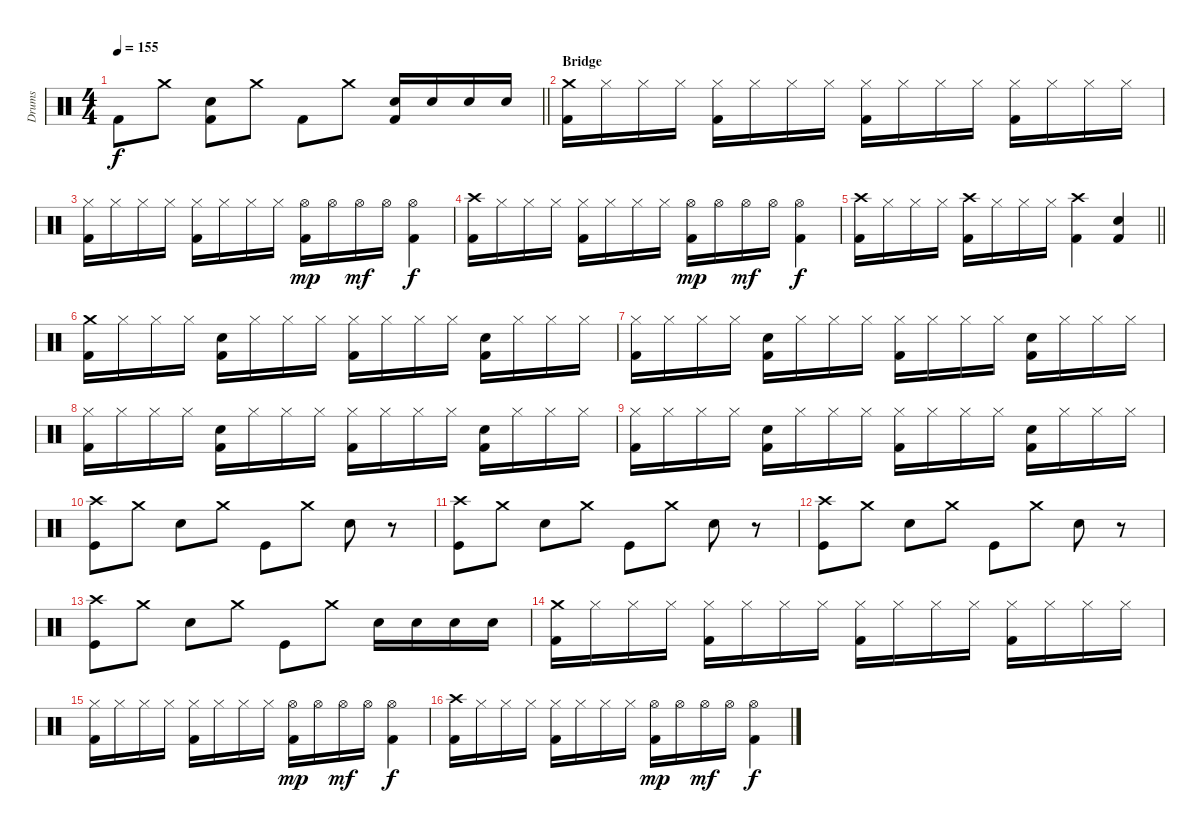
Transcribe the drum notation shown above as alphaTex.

\track ("Drums" "Drums") {instrument percussion}
\staff {score}
\articulation defaults
\ts (4 4)
\tempo 155
\clef neutral
\barLineRight lightlight
\ks c "Kick (hit) 2".8{dy f} "Crash medium (hit)".8
("Electric Snare (hit)" "Kick (hit) 2").8 "Crash medium (hit)".8 "Kick (hit) 2".8 "Crash medium (hit)".8 ("Electric Snare (hit)" "Kick (hit) 2").16 "Electric Snare (hit)".16 "Electric Snare (hit)".16 "Electric Snare (hit)".16 |
\section ("" "Bridge")
("Crash medium (hit)" "Kick (hit) 2").16 "Hi-Hat (closed)".16 "Hi-Hat (closed)".16 "Hi-Hat (closed)".16 ("Hi-Hat (closed)" "Kick (hit) 2").16 "Hi-Hat (closed)".16 "Hi-Hat (closed)".16 "Hi-Hat (closed)".16 ("Hi-Hat (closed)" "Kick (hit) 2").16 "Hi-Hat (closed)".16 "Hi-Hat (closed)".16 "Hi-Hat (closed)".16 ("Hi-Hat (closed)" "Kick (hit) 2").16 "Hi-Hat (closed)".16 "Hi-Hat (closed)".16 "Hi-Hat (closed)".16 |
("Hi-Hat (closed)" "Kick (hit) 2").16 "Hi-Hat (closed)".16 "Hi-Hat (closed)".16 "Hi-Hat (closed)".16 ("Hi-Hat (closed)" "Kick (hit) 2").16 "Hi-Hat (closed)".16 "Hi-Hat (closed)".16 "Hi-Hat (closed)".16 ("Hi-Hat (open)" "Kick (hit) 2").16{dy mp} "Hi-Hat (open)".16 "Hi-Hat (open)".16{dy mf} "Hi-Hat (open)".16 ("Hi-Hat (open)" "Kick (hit) 2").4{dy f} |
("Crash high (hit)" "Kick (hit) 2").16 "Hi-Hat (closed)".16 "Hi-Hat (closed)".16 "Hi-Hat (closed)".16 ("Hi-Hat (closed)" "Kick (hit) 2").16 "Hi-Hat (closed)".16 "Hi-Hat (closed)".16 "Hi-Hat (closed)".16 ("Hi-Hat (open)" "Kick (hit) 2").16{dy mp} "Hi-Hat (open)".16 "Hi-Hat (open)".16{dy mf} "Hi-Hat (open)".16 ("Hi-Hat (open)" "Kick (hit) 2").4{dy f} |
\barLineRight lightlight
("Crash high (hit)" "Kick (hit) 2").16 "Hi-Hat (closed)".16 "Hi-Hat (closed)".16 "Hi-Hat (closed)".16 ("Crash high (hit)" "Kick (hit) 2").16 "Hi-Hat (closed)".16 "Hi-Hat (closed)".16 "Hi-Hat (closed)".16 ("Crash high (hit)" "Kick (hit) 2").4 ("Electric Snare (hit)" "Kick (hit) 2").4 |
("Crash medium (hit)" "Kick (hit) 2").16 "Hi-Hat (closed)".16 "Hi-Hat (closed)".16 "Hi-Hat (closed)".16 ("Electric Snare (hit)" "Kick (hit) 2").16 "Hi-Hat (closed)".16 "Hi-Hat (closed)".16 "Hi-Hat (closed)".16 ("Hi-Hat (closed)" "Kick (hit) 2").16 "Hi-Hat (closed)".16 "Hi-Hat (closed)".16 "Hi-Hat (closed)".16 ("Electric Snare (hit)" "Kick (hit) 2").16 "Hi-Hat (closed)".16 "Hi-Hat (closed)".16 "Hi-Hat (closed)".16 |
("Hi-Hat (closed)" "Kick (hit) 2").16 "Hi-Hat (closed)".16 "Hi-Hat (closed)".16 "Hi-Hat (closed)".16 ("Electric Snare (hit)" "Kick (hit) 2").16 "Hi-Hat (closed)".16 "Hi-Hat (closed)".16 "Hi-Hat (closed)".16 ("Hi-Hat (closed)" "Kick (hit) 2").16 "Hi-Hat (closed)".16 "Hi-Hat (closed)".16 "Hi-Hat (closed)".16 ("Electric Snare (hit)" "Kick (hit) 2").16 "Hi-Hat (closed)".16 "Hi-Hat (closed)".16 "Hi-Hat (closed)".16 |
("Hi-Hat (closed)" "Kick (hit) 2").16 "Hi-Hat (closed)".16 "Hi-Hat (closed)".16 "Hi-Hat (closed)".16 ("Electric Snare (hit)" "Kick (hit) 2").16 "Hi-Hat (closed)".16 "Hi-Hat (closed)".16 "Hi-Hat (closed)".16 ("Hi-Hat (closed)" "Kick (hit) 2").16 "Hi-Hat (closed)".16 "Hi-Hat (closed)".16 "Hi-Hat (closed)".16 ("Electric Snare (hit)" "Kick (hit) 2").16 "Hi-Hat (closed)".16 "Hi-Hat (closed)".16 "Hi-Hat (closed)".16 |
("Hi-Hat (closed)" "Kick (hit) 2").16 "Hi-Hat (closed)".16 "Hi-Hat (closed)".16 "Hi-Hat (closed)".16 ("Electric Snare (hit)" "Kick (hit) 2").16 "Hi-Hat (closed)".16 "Hi-Hat (closed)".16 "Hi-Hat (closed)".16 ("Hi-Hat (closed)" "Kick (hit) 2").16 "Hi-Hat (closed)".16 "Hi-Hat (closed)".16 "Hi-Hat (closed)".16 ("Electric Snare (hit)" "Kick (hit) 2").16 "Hi-Hat (closed)".16 "Hi-Hat (closed)".16 "Hi-Hat (closed)".16 |
("Crash high (hit)" "Kick (hit)").8 "Crash medium (hit)".8 "Electric Snare (hit)".8 "Crash medium (hit)".8 "Kick (hit)".8 "Crash medium (hit)".8 "Electric Snare (hit)".8 r.8 |
("Crash high (hit)" "Kick (hit)").8 "Crash medium (hit)".8 "Electric Snare (hit)".8 "Crash medium (hit)".8 "Kick (hit)".8 "Crash medium (hit)".8 "Electric Snare (hit)".8 r.8 |
("Crash high (hit)" "Kick (hit)").8 "Crash medium (hit)".8 "Electric Snare (hit)".8 "Crash medium (hit)".8 "Kick (hit)".8 "Crash medium (hit)".8 "Electric Snare (hit)".8 r.8 |
("Crash high (hit)" "Kick (hit)").8 "Crash medium (hit)".8 "Electric Snare (hit)".8 "Crash medium (hit)".8 "Kick (hit)".8 "Crash medium (hit)".8 "Electric Snare (hit)".16 "Electric Snare (hit)".16 "Electric Snare (hit)".16 "Electric Snare (hit)".16 |
("Crash medium (hit)" "Kick (hit) 2").16 "Hi-Hat (closed)".16 "Hi-Hat (closed)".16 "Hi-Hat (closed)".16 ("Hi-Hat (closed)" "Kick (hit) 2").16 "Hi-Hat (closed)".16 "Hi-Hat (closed)".16 "Hi-Hat (closed)".16 ("Hi-Hat (closed)" "Kick (hit) 2").16 "Hi-Hat (closed)".16 "Hi-Hat (closed)".16 "Hi-Hat (closed)".16 ("Hi-Hat (closed)" "Kick (hit) 2").16 "Hi-Hat (closed)".16 "Hi-Hat (closed)".16 "Hi-Hat (closed)".16 |
("Hi-Hat (closed)" "Kick (hit) 2").16 "Hi-Hat (closed)".16 "Hi-Hat (closed)".16 "Hi-Hat (closed)".16 ("Hi-Hat (closed)" "Kick (hit) 2").16 "Hi-Hat (closed)".16 "Hi-Hat (closed)".16 "Hi-Hat (closed)".16 ("Hi-Hat (open)" "Kick (hit) 2").16{dy mp} "Hi-Hat (open)".16 "Hi-Hat (open)".16{dy mf} "Hi-Hat (open)".16 ("Hi-Hat (open)" "Kick (hit) 2").4{dy f} |
("Crash high (hit)" "Kick (hit) 2").16 "Hi-Hat (closed)".16 "Hi-Hat (closed)".16 "Hi-Hat (closed)".16 ("Hi-Hat (closed)" "Kick (hit) 2").16 "Hi-Hat (closed)".16 "Hi-Hat (closed)".16 "Hi-Hat (closed)".16 ("Hi-Hat (open)" "Kick (hit) 2").16{dy mp} "Hi-Hat (open)".16 "Hi-Hat (open)".16{dy mf} "Hi-Hat (open)".16 ("Hi-Hat (open)" "Kick (hit) 2").4{dy f}
